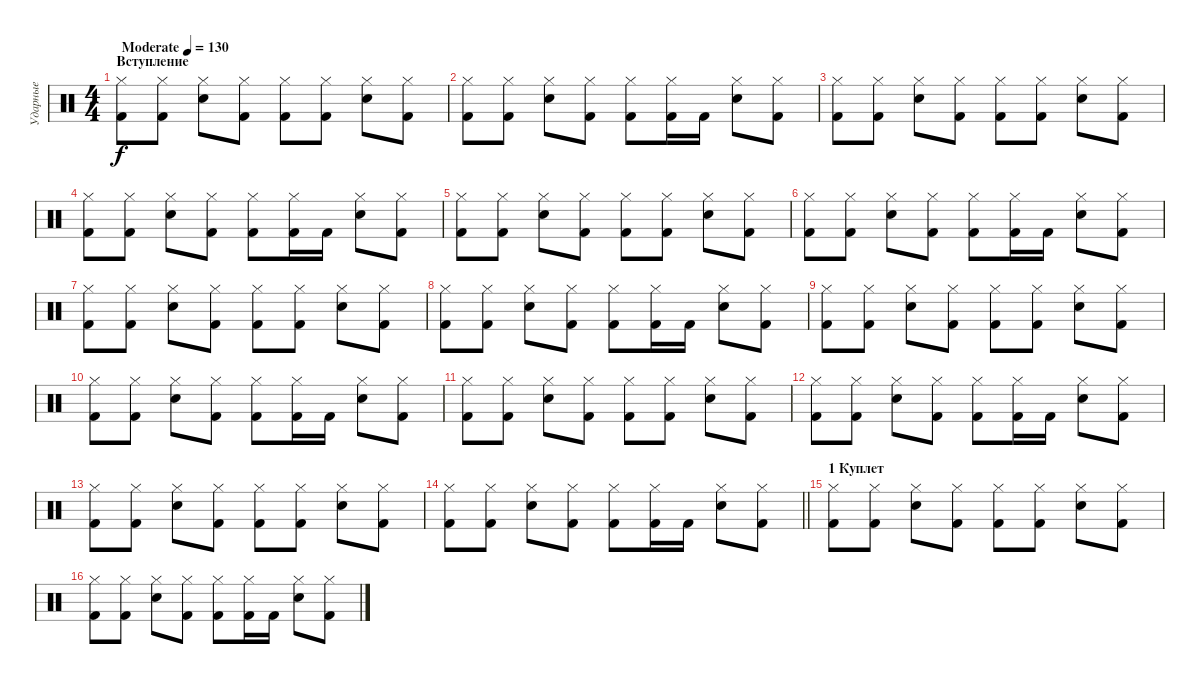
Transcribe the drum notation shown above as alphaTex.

\track ("Ударные" "Ударные") {instrument percussion}
\staff {score}
\articulation defaults
\ts (4 4)
\section ("" "Вступление")
\tempo (130 "Moderate")
\clef neutral
\ks c
("Hi-Hat (closed)" "Kick (hit) 2").8{dy f} ("Hi-Hat (closed)" "Kick (hit) 2").8 ("Hi-Hat (closed)" "Snare (hit) 2").8 ("Hi-Hat (closed)" "Kick (hit) 2").8 ("Hi-Hat (closed)" "Kick (hit) 2").8 ("Hi-Hat (closed)" "Kick (hit) 2").8 ("Hi-Hat (closed)" "Snare (hit) 2").8 ("Hi-Hat (closed)" "Kick (hit) 2").8 |
("Hi-Hat (closed)" "Kick (hit) 2").8 ("Hi-Hat (closed)" "Kick (hit) 2").8 ("Hi-Hat (closed)" "Snare (hit) 2").8 ("Hi-Hat (closed)" "Kick (hit) 2").8 ("Hi-Hat (closed)" "Kick (hit) 2").8 ("Hi-Hat (closed)" "Kick (hit) 2").16 "Kick (hit) 2".16 ("Hi-Hat (closed)" "Snare (hit) 2").8 ("Hi-Hat (closed)" "Kick (hit) 2").8 |
("Hi-Hat (closed)" "Kick (hit) 2").8 ("Hi-Hat (closed)" "Kick (hit) 2").8 ("Hi-Hat (closed)" "Snare (hit) 2").8 ("Hi-Hat (closed)" "Kick (hit) 2").8 ("Hi-Hat (closed)" "Kick (hit) 2").8 ("Hi-Hat (closed)" "Kick (hit) 2").8 ("Hi-Hat (closed)" "Snare (hit) 2").8 ("Hi-Hat (closed)" "Kick (hit) 2").8 |
("Hi-Hat (closed)" "Kick (hit) 2").8 ("Hi-Hat (closed)" "Kick (hit) 2").8 ("Hi-Hat (closed)" "Snare (hit) 2").8 ("Hi-Hat (closed)" "Kick (hit) 2").8 ("Hi-Hat (closed)" "Kick (hit) 2").8 ("Hi-Hat (closed)" "Kick (hit) 2").16 "Kick (hit) 2".16 ("Hi-Hat (closed)" "Snare (hit) 2").8 ("Hi-Hat (closed)" "Kick (hit) 2").8 |
("Hi-Hat (closed)" "Kick (hit) 2").8 ("Hi-Hat (closed)" "Kick (hit) 2").8 ("Hi-Hat (closed)" "Snare (hit) 2").8 ("Hi-Hat (closed)" "Kick (hit) 2").8 ("Hi-Hat (closed)" "Kick (hit) 2").8 ("Hi-Hat (closed)" "Kick (hit) 2").8 ("Hi-Hat (closed)" "Snare (hit) 2").8 ("Hi-Hat (closed)" "Kick (hit) 2").8 |
("Hi-Hat (closed)" "Kick (hit) 2").8 ("Hi-Hat (closed)" "Kick (hit) 2").8 ("Hi-Hat (closed)" "Snare (hit) 2").8 ("Hi-Hat (closed)" "Kick (hit) 2").8 ("Hi-Hat (closed)" "Kick (hit) 2").8 ("Hi-Hat (closed)" "Kick (hit) 2").16 "Kick (hit) 2".16 ("Hi-Hat (closed)" "Snare (hit) 2").8 ("Hi-Hat (closed)" "Kick (hit) 2").8 |
("Hi-Hat (closed)" "Kick (hit) 2").8 ("Hi-Hat (closed)" "Kick (hit) 2").8 ("Hi-Hat (closed)" "Snare (hit) 2").8 ("Hi-Hat (closed)" "Kick (hit) 2").8 ("Hi-Hat (closed)" "Kick (hit) 2").8 ("Hi-Hat (closed)" "Kick (hit) 2").8 ("Hi-Hat (closed)" "Snare (hit) 2").8 ("Hi-Hat (closed)" "Kick (hit) 2").8 |
("Hi-Hat (closed)" "Kick (hit) 2").8 ("Hi-Hat (closed)" "Kick (hit) 2").8 ("Hi-Hat (closed)" "Snare (hit) 2").8 ("Hi-Hat (closed)" "Kick (hit) 2").8 ("Hi-Hat (closed)" "Kick (hit) 2").8 ("Hi-Hat (closed)" "Kick (hit) 2").16 "Kick (hit) 2".16 ("Hi-Hat (closed)" "Snare (hit) 2").8 ("Hi-Hat (closed)" "Kick (hit) 2").8 |
("Hi-Hat (closed)" "Kick (hit) 2").8 ("Hi-Hat (closed)" "Kick (hit) 2").8 ("Hi-Hat (closed)" "Snare (hit) 2").8 ("Hi-Hat (closed)" "Kick (hit) 2").8 ("Hi-Hat (closed)" "Kick (hit) 2").8 ("Hi-Hat (closed)" "Kick (hit) 2").8 ("Hi-Hat (closed)" "Snare (hit) 2").8 ("Hi-Hat (closed)" "Kick (hit) 2").8 |
("Hi-Hat (closed)" "Kick (hit) 2").8 ("Hi-Hat (closed)" "Kick (hit) 2").8 ("Hi-Hat (closed)" "Snare (hit) 2").8 ("Hi-Hat (closed)" "Kick (hit) 2").8 ("Hi-Hat (closed)" "Kick (hit) 2").8 ("Hi-Hat (closed)" "Kick (hit) 2").16 "Kick (hit) 2".16 ("Hi-Hat (closed)" "Snare (hit) 2").8 ("Hi-Hat (closed)" "Kick (hit) 2").8 |
("Hi-Hat (closed)" "Kick (hit) 2").8 ("Hi-Hat (closed)" "Kick (hit) 2").8 ("Hi-Hat (closed)" "Snare (hit) 2").8 ("Hi-Hat (closed)" "Kick (hit) 2").8 ("Hi-Hat (closed)" "Kick (hit) 2").8 ("Hi-Hat (closed)" "Kick (hit) 2").8 ("Hi-Hat (closed)" "Snare (hit) 2").8 ("Hi-Hat (closed)" "Kick (hit) 2").8 |
("Hi-Hat (closed)" "Kick (hit) 2").8 ("Hi-Hat (closed)" "Kick (hit) 2").8 ("Hi-Hat (closed)" "Snare (hit) 2").8 ("Hi-Hat (closed)" "Kick (hit) 2").8 ("Hi-Hat (closed)" "Kick (hit) 2").8 ("Hi-Hat (closed)" "Kick (hit) 2").16 "Kick (hit) 2".16 ("Hi-Hat (closed)" "Snare (hit) 2").8 ("Hi-Hat (closed)" "Kick (hit) 2").8 |
("Hi-Hat (closed)" "Kick (hit) 2").8 ("Hi-Hat (closed)" "Kick (hit) 2").8 ("Hi-Hat (closed)" "Snare (hit) 2").8 ("Hi-Hat (closed)" "Kick (hit) 2").8 ("Hi-Hat (closed)" "Kick (hit) 2").8 ("Hi-Hat (closed)" "Kick (hit) 2").8 ("Hi-Hat (closed)" "Snare (hit) 2").8 ("Hi-Hat (closed)" "Kick (hit) 2").8 |
\barLineRight lightlight
("Hi-Hat (closed)" "Kick (hit) 2").8 ("Hi-Hat (closed)" "Kick (hit) 2").8 ("Hi-Hat (closed)" "Snare (hit) 2").8 ("Hi-Hat (closed)" "Kick (hit) 2").8 ("Hi-Hat (closed)" "Kick (hit) 2").8 ("Hi-Hat (closed)" "Kick (hit) 2").16 "Kick (hit) 2".16 ("Hi-Hat (closed)" "Snare (hit) 2").8 ("Hi-Hat (closed)" "Kick (hit) 2").8 |
\section ("" "1 Куплет")
("Hi-Hat (closed)" "Kick (hit) 2").8 ("Hi-Hat (closed)" "Kick (hit) 2").8 ("Hi-Hat (closed)" "Snare (hit) 2").8 ("Hi-Hat (closed)" "Kick (hit) 2").8 ("Hi-Hat (closed)" "Kick (hit) 2").8 ("Hi-Hat (closed)" "Kick (hit) 2").8 ("Hi-Hat (closed)" "Snare (hit) 2").8 ("Hi-Hat (closed)" "Kick (hit) 2").8 |
("Hi-Hat (closed)" "Kick (hit) 2").8 ("Hi-Hat (closed)" "Kick (hit) 2").8 ("Hi-Hat (closed)" "Snare (hit) 2").8 ("Hi-Hat (closed)" "Kick (hit) 2").8 ("Hi-Hat (closed)" "Kick (hit) 2").8 ("Hi-Hat (closed)" "Kick (hit) 2").16 "Kick (hit) 2".16 ("Hi-Hat (closed)" "Snare (hit) 2").8 ("Hi-Hat (closed)" "Kick (hit) 2").8
